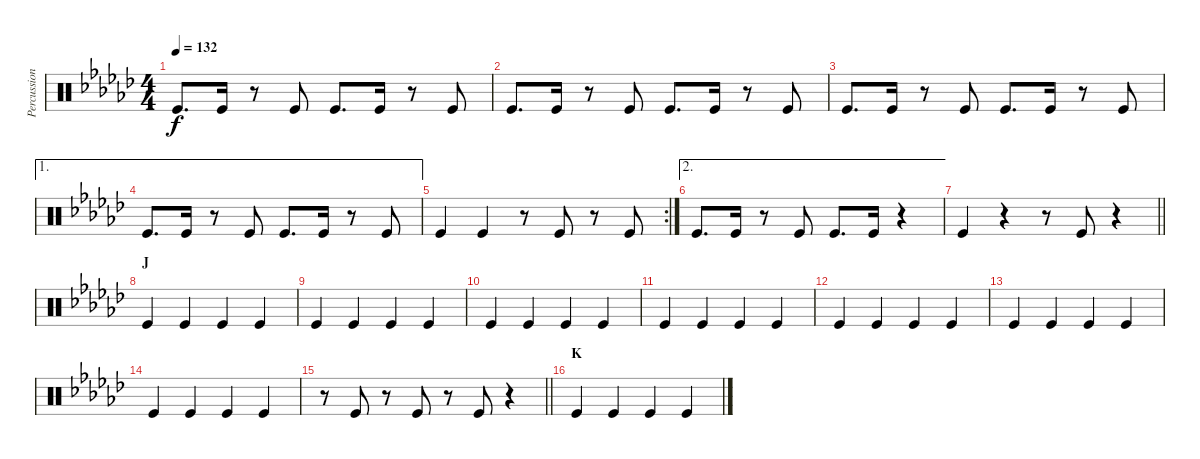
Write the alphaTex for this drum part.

\track ("Percussion foot" "Percussion") {instrument percussion}
\staff {score}
\articulation defaults
\ts (4 4)
\tempo 132
\clef neutral
\ks gb "Kick (hit)".8{d dy f} "Kick (hit)".16
r.8 "Kick (hit)".8 "Kick (hit)".8{d} "Kick (hit)".16 r.8 "Kick (hit)".8 |
"Kick (hit)".8{d} "Kick (hit)".16 r.8 "Kick (hit)".8 "Kick (hit)".8{d} "Kick (hit)".16 r.8 "Kick (hit)".8 |
"Kick (hit)".8{d} "Kick (hit)".16 r.8 "Kick (hit)".8 "Kick (hit)".8{d} "Kick (hit)".16 r.8 "Kick (hit)".8 |
\ae 1 "Kick (hit)".8{d} "Kick (hit)".16
r.8 "Kick (hit)".8 "Kick (hit)".8{d} "Kick (hit)".16 r.8 "Kick (hit)".8 |
\rc 2 "Kick (hit)".4 "Kick (hit)".4
r.8 "Kick (hit)".8 r.8 "Kick (hit)".8 |
\ae 2 "Kick (hit)".8{d} "Kick (hit)".16
r.8 "Kick (hit)".8 "Kick (hit)".8{d} "Kick (hit)".16 r.4 |
\barLineRight lightlight "Kick (hit)".4
r.4 r.8 "Kick (hit)".8 r.4 |
\section ("" "J")
"Kick (hit)".4 "Kick (hit)".4 "Kick (hit)".4 "Kick (hit)".4 |
"Kick (hit)".4 "Kick (hit)".4 "Kick (hit)".4 "Kick (hit)".4 |
"Kick (hit)".4 "Kick (hit)".4 "Kick (hit)".4 "Kick (hit)".4 |
"Kick (hit)".4 "Kick (hit)".4 "Kick (hit)".4 "Kick (hit)".4 |
"Kick (hit)".4 "Kick (hit)".4 "Kick (hit)".4 "Kick (hit)".4 |
"Kick (hit)".4 "Kick (hit)".4 "Kick (hit)".4 "Kick (hit)".4 |
"Kick (hit)".4 "Kick (hit)".4 "Kick (hit)".4 "Kick (hit)".4 |
\barLineRight lightlight
r.8 "Kick (hit)".8 r.8 "Kick (hit)".8 r.8 "Kick (hit)".8 r.4 |
\section ("" "K")
"Kick (hit)".4 "Kick (hit)".4 "Kick (hit)".4 "Kick (hit)".4
